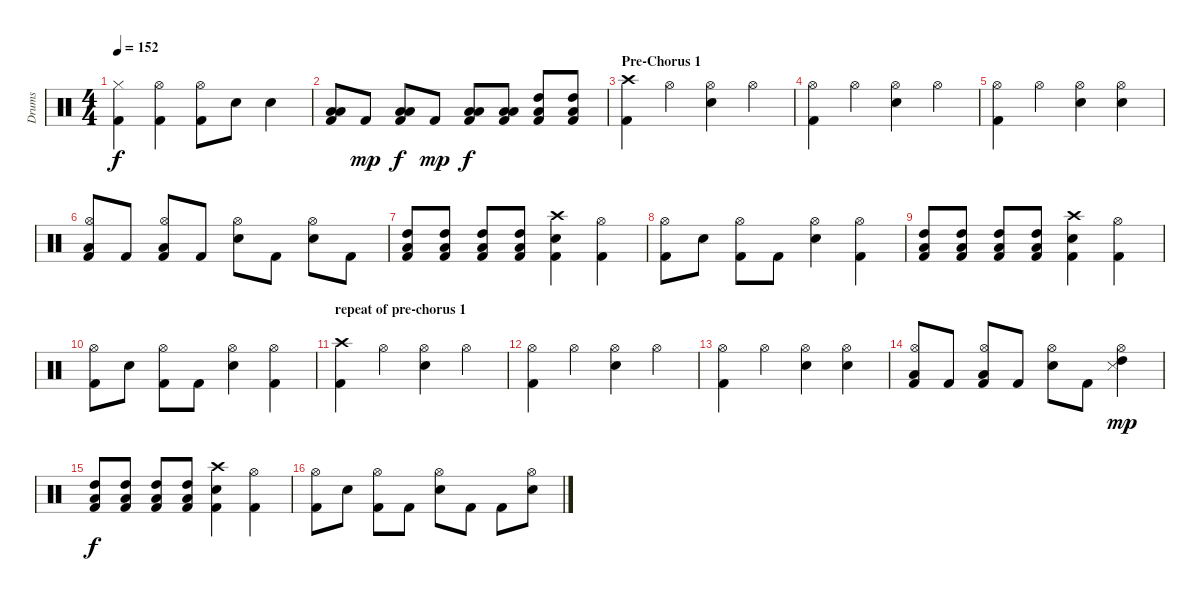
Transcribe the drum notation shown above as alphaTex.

\track ("Drums" "Drums") {instrument percussion}
\staff {score}
\articulation defaults
\ts (4 4)
\tempo 152
\clef neutral
\ks c
("Hi-Hat (closed)" "Kick (hit) 2").4{dy f} ("Hi-Hat (open)" "Kick (hit) 2").4 ("Hi-Hat (open)" "Kick (hit) 2").8 "Electric Snare (hit)".8 "Electric Snare (hit)".4 |
("Low Tom (hit)" "Low Floor Tom (hit)" "Kick (hit) 2").8 "Kick (hit) 2".8{dy mp} ("Low Tom (hit)" "Low Floor Tom (hit)" "Kick (hit) 2").8{dy f} "Kick (hit) 2".8{dy mp} ("Low Tom (hit)" "Low Floor Tom (hit)" "Kick (hit) 2").8{dy f} ("Low Tom (hit)" "Low Floor Tom (hit)" "Kick (hit) 2").8 ("High Tom (hit)" "Low Tom (hit)" "Kick (hit) 2").8 ("High Tom (hit)" "Low Tom (hit)" "Kick (hit) 2").8 |
\section ("" "Pre-Chorus 1")
("Crash high (hit)" "Kick (hit) 2").4 "Hi-Hat (open)".4 ("Hi-Hat (open)" "Electric Snare (hit)").4 "Hi-Hat (open)".4 |
("Hi-Hat (open)" "Kick (hit) 2").4 "Hi-Hat (open)".4 ("Hi-Hat (open)" "Electric Snare (hit)").4 "Hi-Hat (open)".4 |
("Hi-Hat (open)" "Kick (hit) 2").4 "Hi-Hat (open)".4 ("Hi-Hat (open)" "Electric Snare (hit)").4 ("Hi-Hat (open)" "Electric Snare (hit)").4 |
("Hi-Hat (open)" "Low Tom (hit)" "Kick (hit) 2").8 "Kick (hit) 2".8 ("Hi-Hat (open)" "Low Tom (hit)" "Kick (hit) 2").8 "Kick (hit) 2".8 ("Hi-Hat (open)" "Electric Snare (hit)").8 "Kick (hit) 2".8 ("Hi-Hat (open)" "Electric Snare (hit)").8 "Kick (hit) 2".8 |
("Low Tom (hit)" "High Tom (hit)" "Kick (hit) 2").8 ("Low Tom (hit)" "High Tom (hit)" "Kick (hit) 2").8 ("Low Tom (hit)" "High Tom (hit)" "Kick (hit) 2").8 ("Low Tom (hit)" "High Tom (hit)" "Kick (hit) 2").8 ("Crash high (hit)" "Electric Snare (hit)" "Kick (hit) 2").4 ("Hi-Hat (open)" "Kick (hit) 2").4 |
("Hi-Hat (open)" "Kick (hit) 2").8 "Electric Snare (hit)".8 ("Hi-Hat (open)" "Kick (hit) 2").8 "Kick (hit) 2".8 ("Hi-Hat (open)" "Electric Snare (hit)").4 ("Hi-Hat (open)" "Kick (hit) 2").4 |
("Low Tom (hit)" "High Tom (hit)" "Kick (hit) 2").8 ("Low Tom (hit)" "High Tom (hit)" "Kick (hit) 2").8 ("Low Tom (hit)" "High Tom (hit)" "Kick (hit) 2").8 ("Low Tom (hit)" "High Tom (hit)" "Kick (hit) 2").8 ("Crash high (hit)" "Electric Snare (hit)" "Kick (hit) 2").4 ("Hi-Hat (open)" "Kick (hit) 2").4 |
("Hi-Hat (open)" "Kick (hit) 2").8 "Electric Snare (hit)".8 ("Hi-Hat (open)" "Kick (hit) 2").8 "Kick (hit) 2".8 ("Hi-Hat (open)" "Electric Snare (hit)").4 ("Hi-Hat (open)" "Kick (hit) 2").4 |
\section ("" "repeat of pre-chorus 1")
("Crash high (hit)" "Kick (hit) 2").4 "Hi-Hat (open)".4 ("Hi-Hat (open)" "Electric Snare (hit)").4 "Hi-Hat (open)".4 |
("Hi-Hat (open)" "Kick (hit) 2").4 "Hi-Hat (open)".4 ("Hi-Hat (open)" "Electric Snare (hit)").4 "Hi-Hat (open)".4 |
("Hi-Hat (open)" "Kick (hit) 2").4 "Hi-Hat (open)".4 ("Hi-Hat (open)" "Electric Snare (hit)").4 ("Hi-Hat (open)" "Electric Snare (hit)").4 |
("Hi-Hat (open)" "Low Tom (hit)" "Kick (hit) 2").8 "Kick (hit) 2".8 ("Hi-Hat (open)" "Low Tom (hit)" "Kick (hit) 2").8 "Kick (hit) 2".8 ("Hi-Hat (open)" "Electric Snare (hit)").8 "Kick (hit) 2".8 ("Hi-Hat (open)" "Snare (side stick) 3" "High Tom (hit)").4{dy mp} |
("Low Tom (hit)" "High Tom (hit)" "Kick (hit) 2").8{dy f} ("Low Tom (hit)" "High Tom (hit)" "Kick (hit) 2").8 ("Low Tom (hit)" "High Tom (hit)" "Kick (hit) 2").8 ("Low Tom (hit)" "High Tom (hit)" "Kick (hit) 2").8 ("Crash high (hit)" "Electric Snare (hit)" "Kick (hit) 2").4 ("Hi-Hat (open)" "Kick (hit) 2").4 |
("Hi-Hat (open)" "Kick (hit) 2").8 "Electric Snare (hit)".8 ("Hi-Hat (open)" "Kick (hit) 2").8 "Kick (hit) 2".8 ("Hi-Hat (open)" "Electric Snare (hit)").8 "Kick (hit) 2".8 "Kick (hit) 2".8 ("Hi-Hat (open)" "Electric Snare (hit)").8
